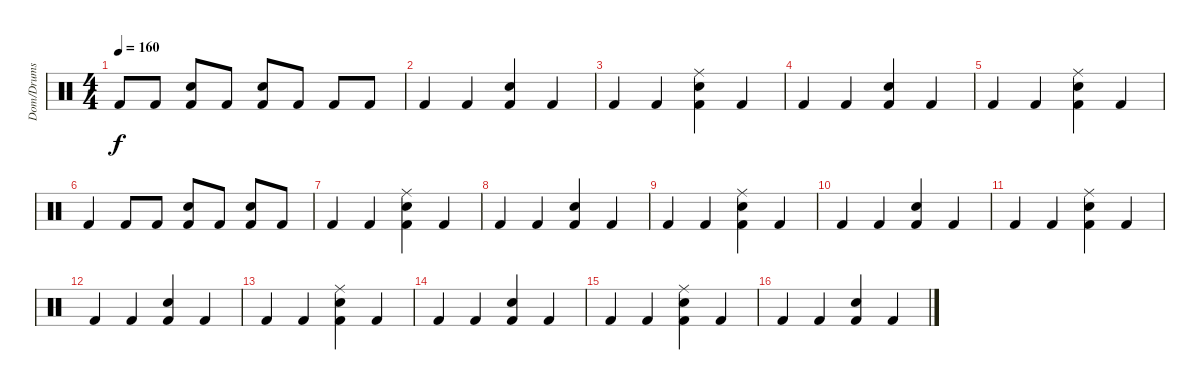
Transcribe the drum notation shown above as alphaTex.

\track ("Dom/Drums" "Dom/Drums") {instrument percussion}
\staff {score}
\articulation defaults
\ts (4 4)
\tempo 160
\clef neutral
\ks c "Kick (hit) 2".8{dy f} "Kick (hit) 2".8
("Electric Snare (hit)" "Kick (hit) 2").8 "Kick (hit) 2".8 ("Electric Snare (hit)" "Kick (hit) 2").8 "Kick (hit) 2".8 "Kick (hit) 2".8 "Kick (hit) 2".8 |
"Kick (hit) 2".4 "Kick (hit) 2".4 ("Electric Snare (hit)" "Kick (hit) 2").4 "Kick (hit) 2".4 |
"Kick (hit) 2".4 "Kick (hit) 2".4 ("Electric Snare (hit)" "Ride (middle)" "Kick (hit) 2").4 "Kick (hit) 2".4 |
"Kick (hit) 2".4 "Kick (hit) 2".4 ("Electric Snare (hit)" "Kick (hit) 2").4 "Kick (hit) 2".4 |
"Kick (hit) 2".4 "Kick (hit) 2".4 ("Electric Snare (hit)" "Ride (middle)" "Kick (hit) 2").4 "Kick (hit) 2".4 |
"Kick (hit) 2".4 "Kick (hit) 2".8 "Kick (hit) 2".8 ("Electric Snare (hit)" "Kick (hit) 2").8 "Kick (hit) 2".8 ("Electric Snare (hit)" "Kick (hit) 2").8 "Kick (hit) 2".8 |
"Kick (hit) 2".4 "Kick (hit) 2".4 ("Electric Snare (hit)" "Ride (middle)" "Kick (hit) 2").4 "Kick (hit) 2".4 |
"Kick (hit) 2".4 "Kick (hit) 2".4 ("Electric Snare (hit)" "Kick (hit) 2").4 "Kick (hit) 2".4 |
"Kick (hit) 2".4 "Kick (hit) 2".4 ("Electric Snare (hit)" "Ride (middle)" "Kick (hit) 2").4 "Kick (hit) 2".4 |
"Kick (hit) 2".4 "Kick (hit) 2".4 ("Electric Snare (hit)" "Kick (hit) 2").4 "Kick (hit) 2".4 |
"Kick (hit) 2".4 "Kick (hit) 2".4 ("Electric Snare (hit)" "Ride (middle)" "Kick (hit) 2").4 "Kick (hit) 2".4 |
"Kick (hit) 2".4 "Kick (hit) 2".4 ("Electric Snare (hit)" "Kick (hit) 2").4 "Kick (hit) 2".4 |
"Kick (hit) 2".4 "Kick (hit) 2".4 ("Electric Snare (hit)" "Ride (middle)" "Kick (hit) 2").4 "Kick (hit) 2".4 |
"Kick (hit) 2".4 "Kick (hit) 2".4 ("Electric Snare (hit)" "Kick (hit) 2").4 "Kick (hit) 2".4 |
"Kick (hit) 2".4 "Kick (hit) 2".4 ("Electric Snare (hit)" "Ride (middle)" "Kick (hit) 2").4 "Kick (hit) 2".4 |
"Kick (hit) 2".4 "Kick (hit) 2".4 ("Electric Snare (hit)" "Kick (hit) 2").4 "Kick (hit) 2".4
